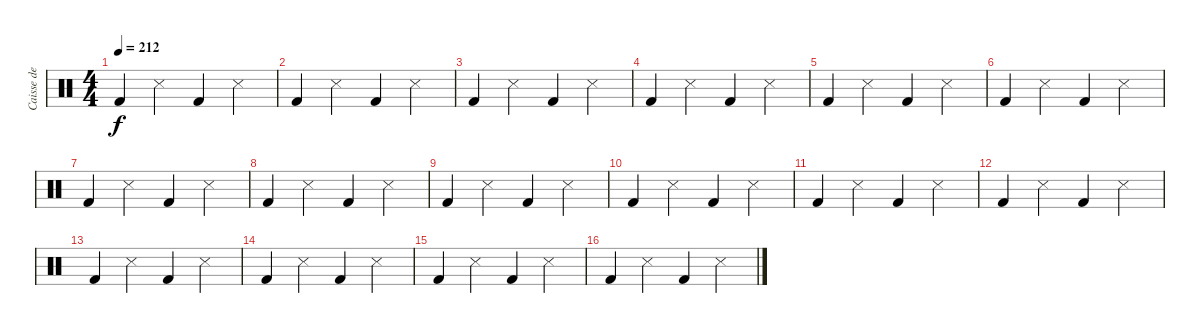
\track ("Caisse de guitare" "Caisse de ") {instrument percussion}
\staff {score}
\articulation defaults
\ts (4 4)
\tempo 212
\clef neutral
\ks c "Kick (hit) 2".4{dy f} "Metronome (hit)".4 "Kick (hit) 2".4 "Metronome (hit)".4
|
"Kick (hit) 2".4 "Metronome (hit)".4 "Kick (hit) 2".4 "Metronome (hit)".4 |
"Kick (hit) 2".4 "Metronome (hit)".4 "Kick (hit) 2".4 "Metronome (hit)".4 |
"Kick (hit) 2".4 "Metronome (hit)".4 "Kick (hit) 2".4 "Metronome (hit)".4 |
"Kick (hit) 2".4 "Metronome (hit)".4 "Kick (hit) 2".4 "Metronome (hit)".4 |
"Kick (hit) 2".4 "Metronome (hit)".4 "Kick (hit) 2".4 "Metronome (hit)".4 |
"Kick (hit) 2".4 "Metronome (hit)".4 "Kick (hit) 2".4 "Metronome (hit)".4 |
"Kick (hit) 2".4 "Metronome (hit)".4 "Kick (hit) 2".4 "Metronome (hit)".4 |
"Kick (hit) 2".4 "Metronome (hit)".4 "Kick (hit) 2".4 "Metronome (hit)".4 |
"Kick (hit) 2".4 "Metronome (hit)".4 "Kick (hit) 2".4 "Metronome (hit)".4 |
"Kick (hit) 2".4 "Metronome (hit)".4 "Kick (hit) 2".4 "Metronome (hit)".4 |
"Kick (hit) 2".4 "Metronome (hit)".4 "Kick (hit) 2".4 "Metronome (hit)".4 |
"Kick (hit) 2".4 "Metronome (hit)".4 "Kick (hit) 2".4 "Metronome (hit)".4 |
"Kick (hit) 2".4 "Metronome (hit)".4 "Kick (hit) 2".4 "Metronome (hit)".4 |
"Kick (hit) 2".4 "Metronome (hit)".4 "Kick (hit) 2".4 "Metronome (hit)".4 |
"Kick (hit) 2".4 "Metronome (hit)".4 "Kick (hit) 2".4 "Metronome (hit)".4
